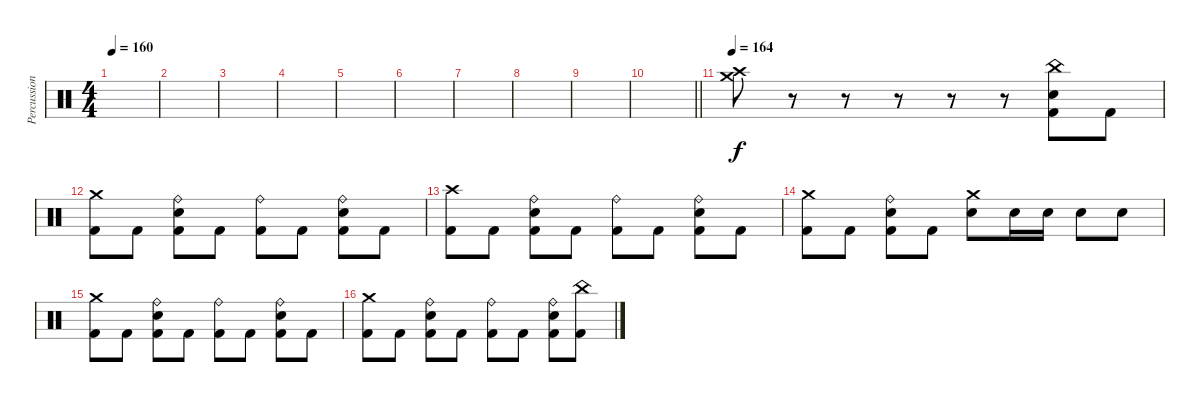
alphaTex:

\track ("Percussions" "Percussion") {instrument percussion}
\staff {score}
\articulation defaults
\ts (4 4)
\tempo 160
\clef neutral
\ks c
|
|
|
|
|
|
|
|
|
\barLineRight lightlight
|
\tempo 164
("Crash medium (hit)" "Crash high (hit)").8 r.8{volume 0} r.8 r.8 r.8 r.8 ("China (hit)" "Electric Snare (hit)" "Kick (hit) 2").8{volume 13} "Kick (hit) 2".8 |
("Crash medium (hit)" "Kick (hit) 2").8 "Kick (hit) 2".8 ("Ride (bell)" "Electric Snare (hit)" "Kick (hit) 2").8 "Kick (hit) 2".8 ("Ride (bell)" "Kick (hit) 2").8 "Kick (hit) 2".8 ("Ride (bell)" "Electric Snare (hit)" "Kick (hit) 2").8 "Kick (hit) 2".8 |
("Crash high (hit)" "Kick (hit) 2").8 "Kick (hit) 2".8 ("Ride (bell)" "Electric Snare (hit)" "Kick (hit) 2").8 "Kick (hit) 2".8 ("Ride (bell)" "Kick (hit) 2").8 "Kick (hit) 2".8 ("Ride (bell)" "Electric Snare (hit)" "Kick (hit) 2").8 "Kick (hit) 2".8 |
("Crash medium (hit)" "Kick (hit) 2").8 "Kick (hit) 2".8 ("Ride (bell)" "Electric Snare (hit)" "Kick (hit) 2").8 "Kick (hit) 2".8 ("Crash medium (hit)" "Electric Snare (hit)").8 "Electric Snare (hit)".16 "Electric Snare (hit)".16 "Electric Snare (hit)".8 "Electric Snare (hit)".8 |
("Crash medium (hit)" "Kick (hit) 2").8 "Kick (hit) 2".8 ("Ride (bell)" "Electric Snare (hit)" "Kick (hit) 2").8 "Kick (hit) 2".8 ("Ride (bell)" "Kick (hit) 2").8 "Kick (hit) 2".8 ("Ride (bell)" "Electric Snare (hit)" "Kick (hit) 2").8 "Kick (hit) 2".8 |
("Crash medium (hit)" "Kick (hit) 2").8 "Kick (hit) 2".8 ("Ride (bell)" "Electric Snare (hit)" "Kick (hit) 2").8 "Kick (hit) 2".8 ("Ride (bell)" "Kick (hit) 2").8 "Kick (hit) 2".8 ("Ride (bell)" "Electric Snare (hit)" "Kick (hit) 2").8 ("China (hit)" "Kick (hit) 2").8
